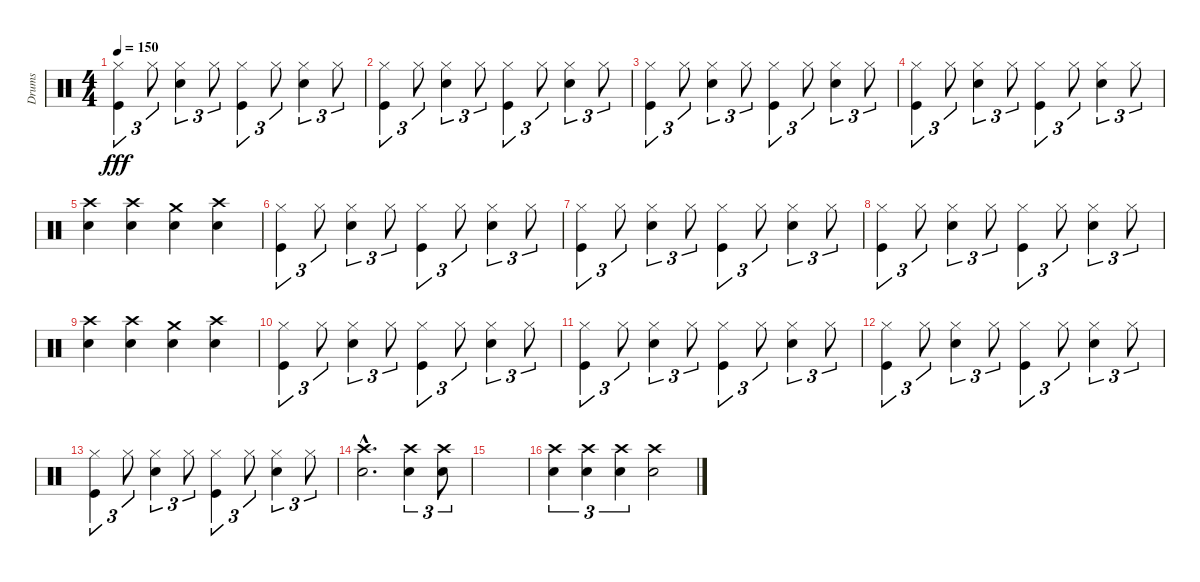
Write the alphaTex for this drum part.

\track ("Drums" "Drums") {instrument percussion}
\staff {score}
\articulation defaults
\ts (4 4)
\tempo 150
\clef neutral
\ks c
("Hi-Hat (closed)" "Kick (hit)").4{tu (3 2) dy fff} "Hi-Hat (closed)".8{tu (3 2)} ("Hi-Hat (closed)" "Snare (hit) 2").4{tu (3 2)} "Hi-Hat (closed)".8{tu (3 2)} ("Hi-Hat (closed)" "Kick (hit)").4{tu (3 2)} "Hi-Hat (closed)".8{tu (3 2)} ("Hi-Hat (closed)" "Snare (hit) 2").4{tu (3 2)} "Hi-Hat (closed)".8{tu (3 2)} |
("Hi-Hat (closed)" "Kick (hit)").4{tu (3 2)} "Hi-Hat (closed)".8{tu (3 2)} ("Hi-Hat (closed)" "Snare (hit) 2").4{tu (3 2)} "Hi-Hat (closed)".8{tu (3 2)} ("Hi-Hat (closed)" "Kick (hit)").4{tu (3 2)} "Hi-Hat (closed)".8{tu (3 2)} ("Hi-Hat (closed)" "Snare (hit) 2").4{tu (3 2)} "Hi-Hat (closed)".8{tu (3 2)} |
("Hi-Hat (closed)" "Kick (hit)").4{tu (3 2)} "Hi-Hat (closed)".8{tu (3 2)} ("Hi-Hat (closed)" "Snare (hit) 2").4{tu (3 2)} "Hi-Hat (closed)".8{tu (3 2)} ("Hi-Hat (closed)" "Kick (hit)").4{tu (3 2)} "Hi-Hat (closed)".8{tu (3 2)} ("Hi-Hat (closed)" "Snare (hit) 2").4{tu (3 2)} "Hi-Hat (closed)".8{tu (3 2)} |
("Hi-Hat (closed)" "Kick (hit)").4{tu (3 2)} "Hi-Hat (closed)".8{tu (3 2)} ("Hi-Hat (closed)" "Snare (hit) 2").4{tu (3 2)} "Hi-Hat (closed)".8{tu (3 2)} ("Hi-Hat (closed)" "Kick (hit)").4{tu (3 2)} "Hi-Hat (closed)".8{tu (3 2)} ("Hi-Hat (closed)" "Snare (hit) 2").4{tu (3 2)} "Hi-Hat (closed)".8{tu (3 2)} |
("Crash high (hit)" "Snare (hit) 2").4 ("Crash high (hit)" "Snare (hit) 2").4 ("Crash medium (hit)" "Snare (hit) 2").4 ("Crash high (hit)" "Snare (hit) 2").4 |
("Hi-Hat (closed)" "Kick (hit)").4{tu (3 2)} "Hi-Hat (closed)".8{tu (3 2)} ("Hi-Hat (closed)" "Snare (hit) 2").4{tu (3 2)} "Hi-Hat (closed)".8{tu (3 2)} ("Hi-Hat (closed)" "Kick (hit)").4{tu (3 2)} "Hi-Hat (closed)".8{tu (3 2)} ("Hi-Hat (closed)" "Snare (hit) 2").4{tu (3 2)} "Hi-Hat (closed)".8{tu (3 2)} |
("Hi-Hat (closed)" "Kick (hit)").4{tu (3 2)} "Hi-Hat (closed)".8{tu (3 2)} ("Hi-Hat (closed)" "Snare (hit) 2").4{tu (3 2)} "Hi-Hat (closed)".8{tu (3 2)} ("Hi-Hat (closed)" "Kick (hit)").4{tu (3 2)} "Hi-Hat (closed)".8{tu (3 2)} ("Hi-Hat (closed)" "Snare (hit) 2").4{tu (3 2)} "Hi-Hat (closed)".8{tu (3 2)} |
("Hi-Hat (closed)" "Kick (hit)").4{tu (3 2)} "Hi-Hat (closed)".8{tu (3 2)} ("Hi-Hat (closed)" "Snare (hit) 2").4{tu (3 2)} "Hi-Hat (closed)".8{tu (3 2)} ("Hi-Hat (closed)" "Kick (hit)").4{tu (3 2)} "Hi-Hat (closed)".8{tu (3 2)} ("Hi-Hat (closed)" "Snare (hit) 2").4{tu (3 2)} "Hi-Hat (closed)".8{tu (3 2)} |
("Crash high (hit)" "Snare (hit) 2").4 ("Crash high (hit)" "Snare (hit) 2").4 ("Crash medium (hit)" "Snare (hit) 2").4 ("Crash high (hit)" "Snare (hit) 2").4 |
("Hi-Hat (closed)" "Kick (hit)").4{tu (3 2)} "Hi-Hat (closed)".8{tu (3 2)} ("Hi-Hat (closed)" "Snare (hit) 2").4{tu (3 2)} "Hi-Hat (closed)".8{tu (3 2)} ("Hi-Hat (closed)" "Kick (hit)").4{tu (3 2)} "Hi-Hat (closed)".8{tu (3 2)} ("Hi-Hat (closed)" "Snare (hit) 2").4{tu (3 2)} "Hi-Hat (closed)".8{tu (3 2)} |
("Hi-Hat (closed)" "Kick (hit)").4{tu (3 2)} "Hi-Hat (closed)".8{tu (3 2)} ("Hi-Hat (closed)" "Snare (hit) 2").4{tu (3 2)} "Hi-Hat (closed)".8{tu (3 2)} ("Hi-Hat (closed)" "Kick (hit)").4{tu (3 2)} "Hi-Hat (closed)".8{tu (3 2)} ("Hi-Hat (closed)" "Snare (hit) 2").4{tu (3 2)} "Hi-Hat (closed)".8{tu (3 2)} |
("Hi-Hat (closed)" "Kick (hit)").4{tu (3 2)} "Hi-Hat (closed)".8{tu (3 2)} ("Hi-Hat (closed)" "Snare (hit) 2").4{tu (3 2)} "Hi-Hat (closed)".8{tu (3 2)} ("Hi-Hat (closed)" "Kick (hit)").4{tu (3 2)} "Hi-Hat (closed)".8{tu (3 2)} ("Hi-Hat (closed)" "Snare (hit) 2").4{tu (3 2)} "Hi-Hat (closed)".8{tu (3 2)} |
("Hi-Hat (closed)" "Kick (hit)").4{tu (3 2)} "Hi-Hat (closed)".8{tu (3 2)} ("Hi-Hat (closed)" "Snare (hit) 2").4{tu (3 2)} "Hi-Hat (closed)".8{tu (3 2)} ("Hi-Hat (closed)" "Kick (hit)").4{tu (3 2)} "Hi-Hat (closed)".8{tu (3 2)} ("Hi-Hat (closed)" "Snare (hit) 2").4{tu (3 2)} "Hi-Hat (closed)".8{tu (3 2)} |
("Crash high (hit)"{hac} "Snare (hit) 2"{hac}).2{d} ("Crash high (hit)" "Snare (hit) 2").4{tu (3 2)} ("Crash high (hit)" "Snare (hit) 2").8{tu (3 2)} |
|
("Crash high (hit)" "Snare (hit) 2").4{tu (3 2)} ("Crash high (hit)" "Snare (hit) 2").4{tu (3 2)} ("Crash high (hit)" "Snare (hit) 2").4{tu (3 2)} ("Crash high (hit)" "Snare (hit) 2").2
